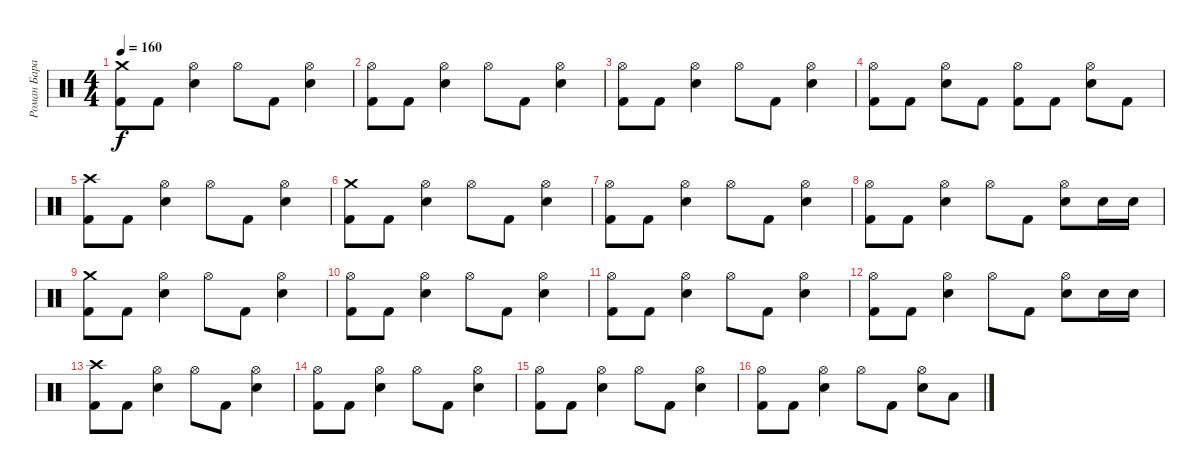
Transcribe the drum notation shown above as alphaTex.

\track ("Роман Баранюк" "Роман Бара") {instrument percussion}
\staff {score}
\articulation defaults
\ts (4 4)
\tempo 160
\clef neutral
\ks c
("Crash medium (hit)" "Kick (hit) 2").8{dy f} "Kick (hit) 2".8 ("Hi-Hat (open)" "Snare (hit) 2").4 "Hi-Hat (open)".8 "Kick (hit) 2".8 ("Hi-Hat (open)" "Snare (hit) 2").4 |
("Hi-Hat (open)" "Kick (hit) 2").8 "Kick (hit) 2".8 ("Hi-Hat (open)" "Snare (hit) 2").4 "Hi-Hat (open)".8 "Kick (hit) 2".8 ("Hi-Hat (open)" "Snare (hit) 2").4 |
("Hi-Hat (open)" "Kick (hit) 2").8 "Kick (hit) 2".8 ("Hi-Hat (open)" "Snare (hit) 2").4 "Hi-Hat (open)".8 "Kick (hit) 2".8 ("Hi-Hat (open)" "Snare (hit) 2").4 |
("Hi-Hat (open)" "Kick (hit) 2").8 "Kick (hit) 2".8 ("Hi-Hat (open)" "Snare (hit) 2").8 "Kick (hit) 2".8 ("Hi-Hat (open)" "Kick (hit) 2").8 "Kick (hit) 2".8 ("Hi-Hat (open)" "Snare (hit) 2").8 "Kick (hit) 2".8 |
("Crash high (hit)" "Kick (hit) 2").8 "Kick (hit) 2".8 ("Hi-Hat (open)" "Snare (hit) 2").4 "Hi-Hat (open)".8 "Kick (hit) 2".8 ("Hi-Hat (open)" "Snare (hit) 2").4 |
("Crash medium (hit)" "Kick (hit) 2").8 "Kick (hit) 2".8 ("Hi-Hat (open)" "Snare (hit) 2").4 "Hi-Hat (open)".8 "Kick (hit) 2".8 ("Hi-Hat (open)" "Snare (hit) 2").4 |
("Hi-Hat (open)" "Kick (hit) 2").8 "Kick (hit) 2".8 ("Hi-Hat (open)" "Snare (hit) 2").4 "Hi-Hat (open)".8 "Kick (hit) 2".8 ("Hi-Hat (open)" "Snare (hit) 2").4 |
("Hi-Hat (open)" "Kick (hit) 2").8 "Kick (hit) 2".8 ("Hi-Hat (open)" "Snare (hit) 2").4 "Hi-Hat (open)".8 "Kick (hit) 2".8 ("Hi-Hat (open)" "Snare (hit) 2").8 "Snare (hit) 2".16 "Snare (hit) 2".16 |
("Crash medium (hit)" "Kick (hit) 2").8 "Kick (hit) 2".8 ("Hi-Hat (open)" "Snare (hit) 2").4 "Hi-Hat (open)".8 "Kick (hit) 2".8 ("Hi-Hat (open)" "Snare (hit) 2").4 |
("Hi-Hat (open)" "Kick (hit) 2").8 "Kick (hit) 2".8 ("Hi-Hat (open)" "Snare (hit) 2").4 "Hi-Hat (open)".8 "Kick (hit) 2".8 ("Hi-Hat (open)" "Snare (hit) 2").4 |
("Hi-Hat (open)" "Kick (hit) 2").8 "Kick (hit) 2".8 ("Hi-Hat (open)" "Snare (hit) 2").4 "Hi-Hat (open)".8 "Kick (hit) 2".8 ("Hi-Hat (open)" "Snare (hit) 2").4 |
("Hi-Hat (open)" "Kick (hit) 2").8 "Kick (hit) 2".8 ("Hi-Hat (open)" "Snare (hit) 2").4 "Hi-Hat (open)".8 "Kick (hit) 2".8 ("Hi-Hat (open)" "Snare (hit) 2").8 "Snare (hit) 2".16 "Snare (hit) 2".16 |
("Crash high (hit)" "Kick (hit) 2").8 "Kick (hit) 2".8 ("Hi-Hat (open)" "Snare (hit) 2").4 "Hi-Hat (open)".8 "Kick (hit) 2".8 ("Hi-Hat (open)" "Snare (hit) 2").4 |
("Hi-Hat (open)" "Kick (hit) 2").8 "Kick (hit) 2".8 ("Hi-Hat (open)" "Snare (hit) 2").4 "Hi-Hat (open)".8 "Kick (hit) 2".8 ("Hi-Hat (open)" "Snare (hit) 2").4 |
("Hi-Hat (open)" "Kick (hit) 2").8 "Kick (hit) 2".8 ("Hi-Hat (open)" "Snare (hit) 2").4 "Hi-Hat (open)".8 "Kick (hit) 2".8 ("Hi-Hat (open)" "Snare (hit) 2").4 |
("Hi-Hat (open)" "Kick (hit) 2").8 "Kick (hit) 2".8 ("Hi-Hat (open)" "Snare (hit) 2").4 "Hi-Hat (open)".8 "Kick (hit) 2".8 ("Hi-Hat (open)" "Snare (hit) 2").8 "Low Tom (hit)".8
